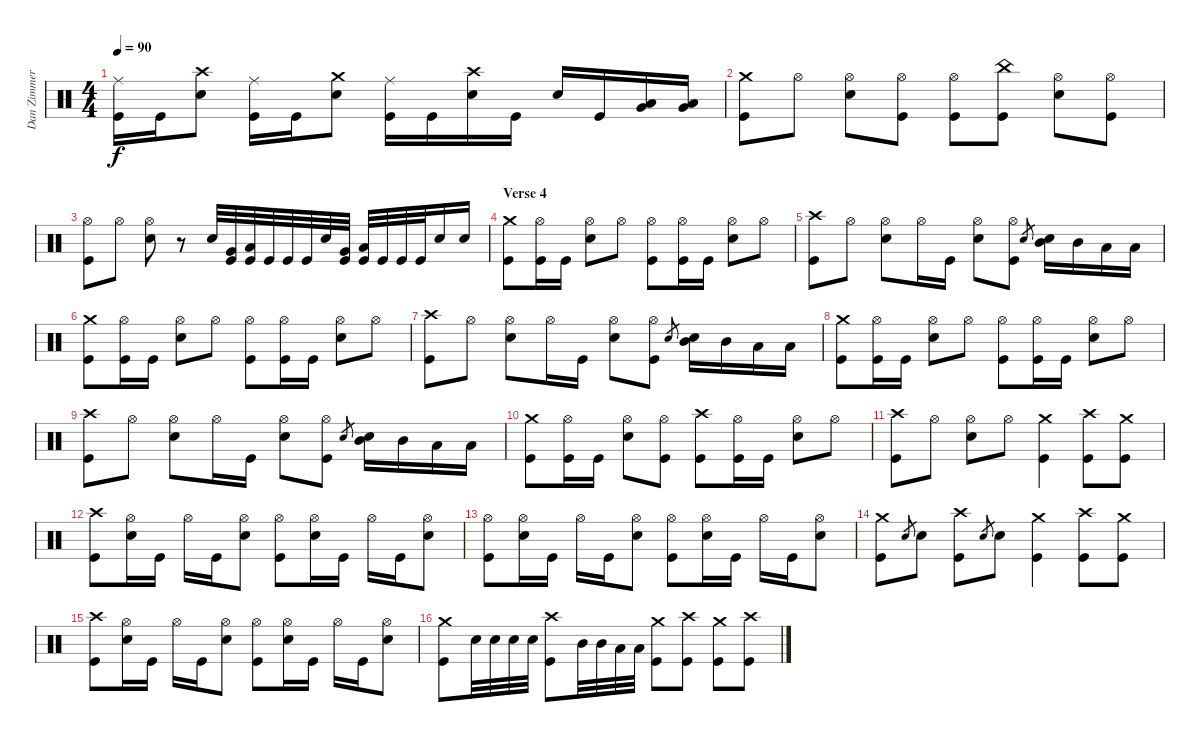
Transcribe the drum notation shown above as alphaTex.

\track ("Dan Zimmerman" "Dan Zimmer") {instrument percussion}
\staff {score}
\articulation defaults
\ts (4 4)
\tempo 90
\clef neutral
\ks c
("Ride (middle)" "Kick (hit)").16{dy f} "Kick (hit)".16 ("Crash high (hit)" "Snare (hit) 2").8 ("Ride (middle)" "Kick (hit)").16 "Kick (hit)".16 ("Crash medium (hit)" "Snare (hit) 2").8 ("Ride (middle)" "Kick (hit)").16 "Kick (hit)".16 ("Crash high (hit)" "Snare (hit) 2").16 "Kick (hit)".16 "Snare (hit) 2".16 "Kick (hit)".16 ("Low Tom (hit)" "Very Low Tom (hit)").16 ("Low Tom (hit)" "Very Low Tom (hit)").16 |
("Crash medium (hit)" "Kick (hit)").8 "Hi-Hat (open)".8 ("Hi-Hat (open)" "Snare (hit) 2").8 ("Hi-Hat (open)" "Kick (hit)").8 ("Hi-Hat (open)" "Kick (hit)").8 ("China (hit)" "Kick (hit)").8 ("Hi-Hat (open)" "Snare (hit) 2").8 ("Hi-Hat (open)" "Kick (hit)").8 |
("Hi-Hat (open)" "Kick (hit)").8 "Hi-Hat (open)".8 ("Hi-Hat (open)" "Snare (hit) 2").8 r.8 "Snare (hit) 2".32 ("Very Low Tom (hit)" "Kick (hit)").32 ("Low Floor Tom (hit)" "Kick (hit)").32 "Kick (hit)".32 "Kick (hit)".32 "Kick (hit)".32 "Snare (hit) 2".32 ("Very Low Tom (hit)" "Kick (hit)").32 ("Low Floor Tom (hit)" "Kick (hit)").32 "Kick (hit)".32 "Kick (hit)".32 "Kick (hit)".32 "Snare (hit) 2".16 "Snare (hit) 2".16 |
\section ("" "Verse 4")
("Crash medium (hit)" "Kick (hit)").8 ("Hi-Hat (open)" "Kick (hit)").16 "Kick (hit)".16 ("Hi-Hat (open)" "Snare (hit) 2").8 "Hi-Hat (open)".8 ("Hi-Hat (open)" "Kick (hit)").8 ("Hi-Hat (open)" "Kick (hit)").16 "Kick (hit)".16 ("Hi-Hat (open)" "Snare (hit) 2").8 "Hi-Hat (open)".8 |
("Crash high (hit)" "Kick (hit)").8 "Hi-Hat (open)".8 ("Hi-Hat (open)" "Snare (hit) 2").8 "Hi-Hat (open)".16 "Kick (hit)".16 ("Hi-Hat (open)" "Snare (hit) 2").8 ("Hi-Hat (open)" "Kick (hit)").8 "Snare (hit) 2".8{gr} ("Mid Tom (hit)" "Snare (hit) 2").16 "Mid Tom (hit)".16 "Low Tom (hit)".16 "Low Tom (hit)".16 |
("Crash medium (hit)" "Kick (hit)").8 ("Hi-Hat (open)" "Kick (hit)").16 "Kick (hit)".16 ("Hi-Hat (open)" "Snare (hit) 2").8 "Hi-Hat (open)".8 ("Hi-Hat (open)" "Kick (hit)").8 ("Hi-Hat (open)" "Kick (hit)").16 "Kick (hit)".16 ("Hi-Hat (open)" "Snare (hit) 2").8 "Hi-Hat (open)".8 |
("Crash high (hit)" "Kick (hit)").8 "Hi-Hat (open)".8 ("Hi-Hat (open)" "Snare (hit) 2").8 "Hi-Hat (open)".16 "Kick (hit)".16 ("Hi-Hat (open)" "Snare (hit) 2").8 ("Hi-Hat (open)" "Kick (hit)").8 "Snare (hit) 2".8{gr} ("Mid Tom (hit)" "Snare (hit) 2").16 "Mid Tom (hit)".16 "Low Tom (hit)".16 "Low Tom (hit)".16 |
("Crash medium (hit)" "Kick (hit)").8 ("Hi-Hat (open)" "Kick (hit)").16 "Kick (hit)".16 ("Hi-Hat (open)" "Snare (hit) 2").8 "Hi-Hat (open)".8 ("Hi-Hat (open)" "Kick (hit)").8 ("Hi-Hat (open)" "Kick (hit)").16 "Kick (hit)".16 ("Hi-Hat (open)" "Snare (hit) 2").8 "Hi-Hat (open)".8 |
("Crash high (hit)" "Kick (hit)").8 "Hi-Hat (open)".8 ("Hi-Hat (open)" "Snare (hit) 2").8 "Hi-Hat (open)".16 "Kick (hit)".16 ("Hi-Hat (open)" "Snare (hit) 2").8 ("Hi-Hat (open)" "Kick (hit)").8 "Snare (hit) 2".8{gr} ("Mid Tom (hit)" "Snare (hit) 2").16 "Mid Tom (hit)".16 "Low Tom (hit)".16 "Low Tom (hit)".16 |
("Crash medium (hit)" "Kick (hit)").8 ("Hi-Hat (open)" "Kick (hit)").16 "Kick (hit)".16 ("Hi-Hat (open)" "Snare (hit) 2").8 ("Hi-Hat (open)" "Kick (hit)").8 ("Crash high (hit)" "Kick (hit)").8 ("Hi-Hat (open)" "Kick (hit)").16 "Kick (hit)".16 ("Hi-Hat (open)" "Snare (hit) 2").8 "Hi-Hat (open)".8 |
("Crash high (hit)" "Kick (hit)").8 "Hi-Hat (open)".8 ("Hi-Hat (open)" "Snare (hit) 2").8 "Hi-Hat (open)".8 ("Crash medium (hit)" "Kick (hit)").4 ("Crash high (hit)" "Kick (hit)").8 ("Crash medium (hit)" "Kick (hit)").8 |
("Crash high (hit)" "Kick (hit)").8 ("Hi-Hat (open)" "Snare (hit) 2").16 "Kick (hit)".16 "Hi-Hat (open)".16 "Kick (hit)".16 ("Hi-Hat (open)" "Snare (hit) 2").8 ("Hi-Hat (open)" "Kick (hit)").8 ("Hi-Hat (open)" "Snare (hit) 2").16 "Kick (hit)".16 "Hi-Hat (open)".16 "Kick (hit)".16 ("Hi-Hat (open)" "Snare (hit) 2").8 |
("Hi-Hat (open)" "Kick (hit)").8 ("Hi-Hat (open)" "Snare (hit) 2").16 "Kick (hit)".16 "Hi-Hat (open)".16 "Kick (hit)".16 ("Hi-Hat (open)" "Snare (hit) 2").8 ("Hi-Hat (open)" "Kick (hit)").8 ("Hi-Hat (open)" "Snare (hit) 2").16 "Kick (hit)".16 "Hi-Hat (open)".16 "Kick (hit)".16 ("Hi-Hat (open)" "Snare (hit) 2").8 |
("Crash medium (hit)" "Kick (hit)").8 "Snare (hit) 2".8{gr} "Snare (hit) 2".8 ("Crash high (hit)" "Kick (hit)").8 "Snare (hit) 2".8{gr} "Snare (hit) 2".8 ("Crash medium (hit)" "Kick (hit)").4 ("Crash high (hit)" "Kick (hit)").8 ("Crash medium (hit)" "Kick (hit)").8 |
("Crash high (hit)" "Kick (hit)").8 ("Hi-Hat (open)" "Snare (hit) 2").16 "Kick (hit)".16 "Hi-Hat (open)".16 "Kick (hit)".16 ("Hi-Hat (open)" "Snare (hit) 2").8 ("Hi-Hat (open)" "Kick (hit)").8 ("Hi-Hat (open)" "Snare (hit) 2").16 "Kick (hit)".16 "Hi-Hat (open)".16 "Kick (hit)".16 ("Hi-Hat (open)" "Snare (hit) 2").8 |
("Crash medium (hit)" "Kick (hit)").8 "Snare (hit) 2".32 "Snare (hit) 2".32 "Snare (hit) 2".32 "Snare (hit) 2".32 ("Crash high (hit)" "Kick (hit)").8 "Mid Tom (hit)".32 "Mid Tom (hit)".32 "Low Tom (hit)".32 "Low Tom (hit)".32 ("Crash medium (hit)" "Kick (hit)").8 ("Crash high (hit)" "Kick (hit)").8 ("Crash medium (hit)" "Kick (hit)").8 ("Crash high (hit)" "Kick (hit)").8
